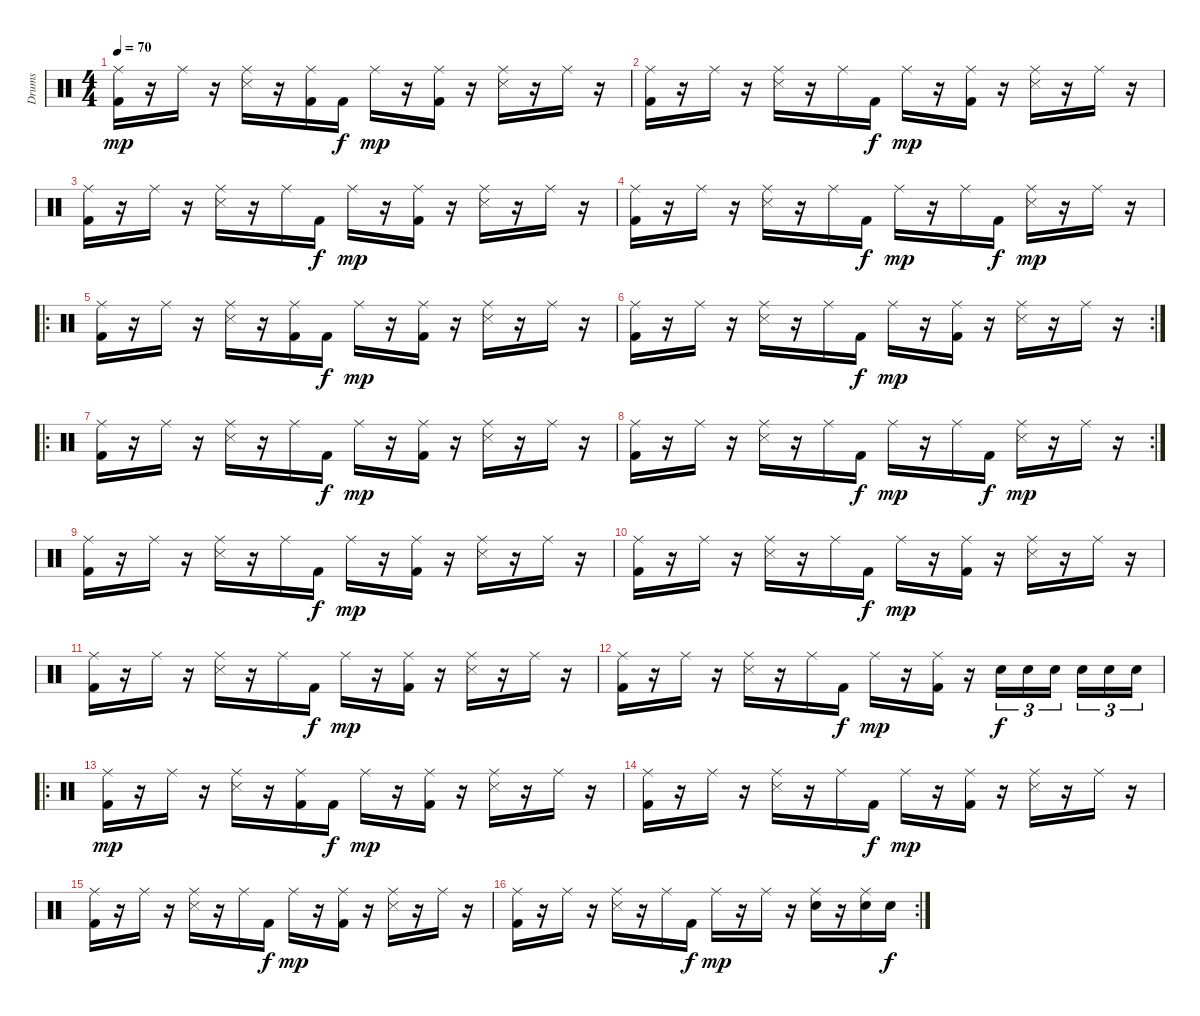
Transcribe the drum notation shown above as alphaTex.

\track ("Drums" "Drums") {instrument percussion}
\staff {score}
\articulation defaults
\ts (4 4)
\tempo 70
\clef neutral
\ks c
("Ride (middle)" "Kick (hit) 2").16{dy mp volume 16} r.16 "Ride (middle)".16 r.16 ("Ride (middle)" "Snare (side stick) 3").16 r.16 ("Ride (middle)" "Kick (hit) 2").16 "Kick (hit) 2".16{dy f} "Ride (middle)".16{dy mp} r.16 ("Ride (middle)" "Kick (hit) 2").16 r.16 ("Ride (middle)" "Snare (side stick) 3").16 r.16 "Ride (middle)".16 r.16 |
("Ride (middle)" "Kick (hit) 2").16 r.16 "Ride (middle)".16 r.16 ("Ride (middle)" "Snare (side stick) 3").16 r.16 "Ride (middle)".16 "Kick (hit) 2".16{dy f} "Ride (middle)".16{dy mp} r.16 ("Ride (middle)" "Kick (hit) 2").16 r.16 ("Ride (middle)" "Snare (side stick) 3").16 r.16 "Ride (middle)".16 r.16 |
("Ride (middle)" "Kick (hit) 2").16 r.16 "Ride (middle)".16 r.16 ("Ride (middle)" "Snare (side stick) 3").16 r.16 "Ride (middle)".16 "Kick (hit) 2".16{dy f} "Ride (middle)".16{dy mp} r.16 ("Ride (middle)" "Kick (hit) 2").16 r.16 ("Ride (middle)" "Snare (side stick) 3").16 r.16 "Ride (middle)".16 r.16 |
("Ride (middle)" "Kick (hit) 2").16 r.16 "Ride (middle)".16 r.16 ("Ride (middle)" "Snare (side stick) 3").16 r.16 "Ride (middle)".16 "Kick (hit) 2".16{dy f} "Ride (middle)".16{dy mp} r.16 "Ride (middle)".16 "Kick (hit) 2".16{dy f} ("Ride (middle)" "Snare (side stick) 3").16{dy mp} r.16 "Ride (middle)".16 r.16 |
\ro
("Ride (middle)" "Kick (hit) 2").16 r.16 "Ride (middle)".16 r.16 ("Ride (middle)" "Snare (side stick) 3").16 r.16 ("Ride (middle)" "Kick (hit) 2").16 "Kick (hit) 2".16{dy f} "Ride (middle)".16{dy mp} r.16 ("Ride (middle)" "Kick (hit) 2").16 r.16 ("Ride (middle)" "Snare (side stick) 3").16 r.16 "Ride (middle)".16 r.16 |
\rc 2
("Ride (middle)" "Kick (hit) 2").16 r.16 "Ride (middle)".16 r.16 ("Ride (middle)" "Snare (side stick) 3").16 r.16 "Ride (middle)".16 "Kick (hit) 2".16{dy f} "Ride (middle)".16{dy mp} r.16 ("Ride (middle)" "Kick (hit) 2").16 r.16 ("Ride (middle)" "Snare (side stick) 3").16 r.16 "Ride (middle)".16 r.16 |
\ro
("Ride (middle)" "Kick (hit) 2").16 r.16 "Ride (middle)".16 r.16 ("Ride (middle)" "Snare (side stick) 3").16 r.16 "Ride (middle)".16 "Kick (hit) 2".16{dy f} "Ride (middle)".16{dy mp} r.16 ("Ride (middle)" "Kick (hit) 2").16 r.16 ("Ride (middle)" "Snare (side stick) 3").16 r.16 "Ride (middle)".16 r.16 |
\rc 2
("Ride (middle)" "Kick (hit) 2").16 r.16 "Ride (middle)".16 r.16 ("Ride (middle)" "Snare (side stick) 3").16 r.16 "Ride (middle)".16 "Kick (hit) 2".16{dy f} "Ride (middle)".16{dy mp} r.16 "Ride (middle)".16 "Kick (hit) 2".16{dy f} ("Ride (middle)" "Snare (side stick) 3").16{dy mp} r.16 "Ride (middle)".16 r.16 |
("Ride (middle)" "Kick (hit) 2").16 r.16 "Ride (middle)".16 r.16 ("Ride (middle)" "Snare (side stick) 3").16 r.16 "Ride (middle)".16 "Kick (hit) 2".16{dy f} "Ride (middle)".16{dy mp} r.16 ("Ride (middle)" "Kick (hit) 2").16 r.16 ("Ride (middle)" "Snare (side stick) 3").16 r.16 "Ride (middle)".16 r.16 |
("Ride (middle)" "Kick (hit) 2").16 r.16 "Ride (middle)".16 r.16 ("Ride (middle)" "Snare (side stick) 3").16 r.16 "Ride (middle)".16 "Kick (hit) 2".16{dy f} "Ride (middle)".16{dy mp} r.16 ("Ride (middle)" "Kick (hit) 2").16 r.16 ("Ride (middle)" "Snare (side stick) 3").16 r.16 "Ride (middle)".16 r.16 |
("Ride (middle)" "Kick (hit) 2").16 r.16 "Ride (middle)".16 r.16 ("Ride (middle)" "Snare (side stick) 3").16 r.16 "Ride (middle)".16 "Kick (hit) 2".16{dy f} "Ride (middle)".16{dy mp} r.16 ("Ride (middle)" "Kick (hit) 2").16 r.16 ("Ride (middle)" "Snare (side stick) 3").16 r.16 "Ride (middle)".16 r.16 |
("Ride (middle)" "Kick (hit) 2").16 r.16 "Ride (middle)".16 r.16 ("Ride (middle)" "Snare (side stick) 3").16 r.16 "Ride (middle)".16 "Kick (hit) 2".16{dy f} "Ride (middle)".16{dy mp} r.16 ("Ride (middle)" "Kick (hit) 2").16 r.16 "Electric Snare (hit)".16{tu (3 2) dy f} "Electric Snare (hit)".16{tu (3 2)} "Electric Snare (hit)".16{tu (3 2)} "Electric Snare (hit)".16{tu (3 2)} "Electric Snare (hit)".16{tu (3 2)} "Electric Snare (hit)".16{tu (3 2)} |
\ro
("Ride (middle)" "Kick (hit) 2").16{dy mp} r.16 "Ride (middle)".16 r.16 ("Ride (middle)" "Snare (side stick) 3").16 r.16 ("Ride (middle)" "Kick (hit) 2").16 "Kick (hit) 2".16{dy f} "Ride (middle)".16{dy mp} r.16 ("Ride (middle)" "Kick (hit) 2").16 r.16 ("Ride (middle)" "Snare (side stick) 3").16 r.16 "Ride (middle)".16 r.16 |
("Ride (middle)" "Kick (hit) 2").16 r.16 "Ride (middle)".16 r.16 ("Ride (middle)" "Snare (side stick) 3").16 r.16 "Ride (middle)".16 "Kick (hit) 2".16{dy f} "Ride (middle)".16{dy mp} r.16 ("Ride (middle)" "Kick (hit) 2").16 r.16 ("Ride (middle)" "Snare (side stick) 3").16 r.16 "Ride (middle)".16 r.16 |
("Ride (middle)" "Kick (hit) 2").16 r.16 "Ride (middle)".16 r.16 ("Ride (middle)" "Snare (side stick) 3").16 r.16 "Ride (middle)".16 "Kick (hit) 2".16{dy f} "Ride (middle)".16{dy mp} r.16 ("Ride (middle)" "Kick (hit) 2").16 r.16 ("Ride (middle)" "Snare (side stick) 3").16 r.16 "Ride (middle)".16 r.16 |
\rc 2
("Ride (middle)" "Kick (hit) 2").16 r.16 "Ride (middle)".16 r.16 ("Ride (middle)" "Snare (side stick) 3").16 r.16 "Ride (middle)".16 "Kick (hit) 2".16{dy f} "Ride (middle)".16{dy mp} r.16 "Ride (middle)".16 r.16 ("Ride (middle)" "Electric Snare (hit)").16 r.16 ("Ride (middle)" "Electric Snare (hit)").16 "Electric Snare (hit)".16{dy f}
